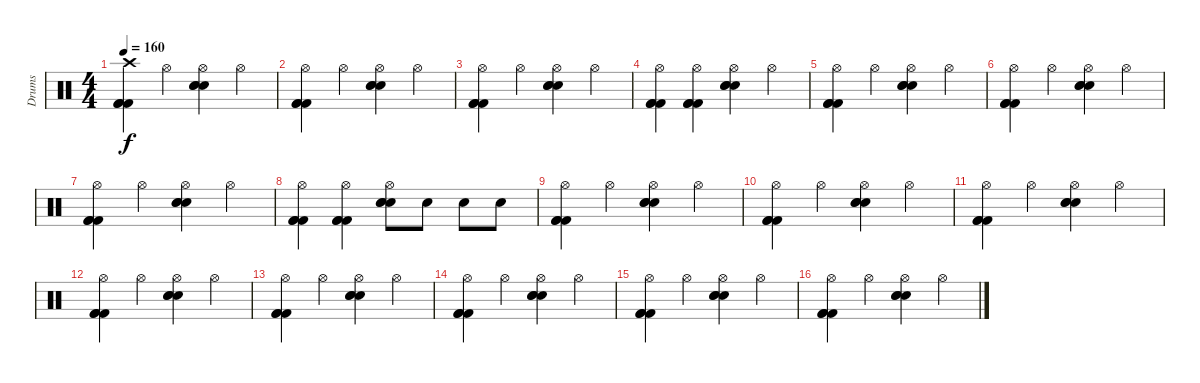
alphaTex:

\track ("Drums" "Drums") {instrument percussion}
\staff {score}
\articulation defaults
\ts (4 4)
\tempo 160
\clef neutral
\ks c
("Crash high (hit)" "Kick (hit) 2" "Kick (hit) 2" "Kick (hit) 2").4{dy f} "Hi-Hat (open)".4 ("Hi-Hat (open)" "Electric Snare (hit)" "Electric Snare (hit)" "Electric Snare (hit)").4 "Hi-Hat (open)".4 |
("Hi-Hat (open)" "Kick (hit) 2" "Kick (hit) 2" "Kick (hit) 2").4 "Hi-Hat (open)".4 ("Hi-Hat (open)" "Electric Snare (hit)" "Electric Snare (hit)" "Electric Snare (hit)").4 "Hi-Hat (open)".4 |
("Hi-Hat (open)" "Kick (hit) 2" "Kick (hit) 2" "Kick (hit) 2").4 "Hi-Hat (open)".4 ("Hi-Hat (open)" "Electric Snare (hit)" "Electric Snare (hit)" "Electric Snare (hit)").4 "Hi-Hat (open)".4 |
("Hi-Hat (open)" "Kick (hit) 2" "Kick (hit) 2" "Kick (hit) 2").4 ("Hi-Hat (open)" "Kick (hit) 2" "Kick (hit) 2" "Kick (hit) 2").4 ("Hi-Hat (open)" "Electric Snare (hit)" "Electric Snare (hit)" "Electric Snare (hit)").4 "Hi-Hat (open)".4 |
("Hi-Hat (open)" "Kick (hit) 2" "Kick (hit) 2" "Kick (hit) 2").4 "Hi-Hat (open)".4 ("Hi-Hat (open)" "Electric Snare (hit)" "Electric Snare (hit)" "Electric Snare (hit)").4 "Hi-Hat (open)".4 |
("Hi-Hat (open)" "Kick (hit) 2" "Kick (hit) 2" "Kick (hit) 2").4 "Hi-Hat (open)".4 ("Hi-Hat (open)" "Electric Snare (hit)" "Electric Snare (hit)" "Electric Snare (hit)").4 "Hi-Hat (open)".4 |
("Hi-Hat (open)" "Kick (hit) 2" "Kick (hit) 2" "Kick (hit) 2").4 "Hi-Hat (open)".4 ("Hi-Hat (open)" "Electric Snare (hit)" "Electric Snare (hit)" "Electric Snare (hit)").4 "Hi-Hat (open)".4 |
("Hi-Hat (open)" "Kick (hit) 2" "Kick (hit) 2" "Kick (hit) 2").4 ("Hi-Hat (open)" "Kick (hit) 2" "Kick (hit) 2" "Kick (hit) 2").4 ("Hi-Hat (open)" "Electric Snare (hit)" "Electric Snare (hit)" "Electric Snare (hit)").8 "Electric Snare (hit)".8 "Electric Snare (hit)".8 "Electric Snare (hit)".8 |
("Hi-Hat (open)" "Kick (hit) 2" "Kick (hit) 2" "Kick (hit) 2").4 "Hi-Hat (open)".4 ("Hi-Hat (open)" "Electric Snare (hit)" "Electric Snare (hit)" "Electric Snare (hit)").4 "Hi-Hat (open)".4 |
("Hi-Hat (open)" "Kick (hit) 2" "Kick (hit) 2" "Kick (hit) 2").4 "Hi-Hat (open)".4 ("Hi-Hat (open)" "Electric Snare (hit)" "Electric Snare (hit)" "Electric Snare (hit)").4 "Hi-Hat (open)".4 |
("Hi-Hat (open)" "Kick (hit) 2" "Kick (hit) 2" "Kick (hit) 2").4 "Hi-Hat (open)".4 ("Hi-Hat (open)" "Electric Snare (hit)" "Electric Snare (hit)" "Electric Snare (hit)").4 "Hi-Hat (open)".4 |
("Hi-Hat (open)" "Kick (hit) 2" "Kick (hit) 2" "Kick (hit) 2").4 "Hi-Hat (open)".4 ("Hi-Hat (open)" "Electric Snare (hit)" "Electric Snare (hit)" "Electric Snare (hit)").4 "Hi-Hat (open)".4 |
("Hi-Hat (open)" "Kick (hit) 2" "Kick (hit) 2" "Kick (hit) 2").4 "Hi-Hat (open)".4 ("Hi-Hat (open)" "Electric Snare (hit)" "Electric Snare (hit)" "Electric Snare (hit)").4 "Hi-Hat (open)".4 |
("Hi-Hat (open)" "Kick (hit) 2" "Kick (hit) 2" "Kick (hit) 2").4 "Hi-Hat (open)".4 ("Hi-Hat (open)" "Electric Snare (hit)" "Electric Snare (hit)" "Electric Snare (hit)").4 "Hi-Hat (open)".4 |
("Hi-Hat (open)" "Kick (hit) 2" "Kick (hit) 2" "Kick (hit) 2").4 "Hi-Hat (open)".4 ("Hi-Hat (open)" "Electric Snare (hit)" "Electric Snare (hit)" "Electric Snare (hit)").4 "Hi-Hat (open)".4 |
("Hi-Hat (open)" "Kick (hit) 2" "Kick (hit) 2" "Kick (hit) 2").4 "Hi-Hat (open)".4 ("Hi-Hat (open)" "Electric Snare (hit)" "Electric Snare (hit)" "Electric Snare (hit)").4 "Hi-Hat (open)".4
